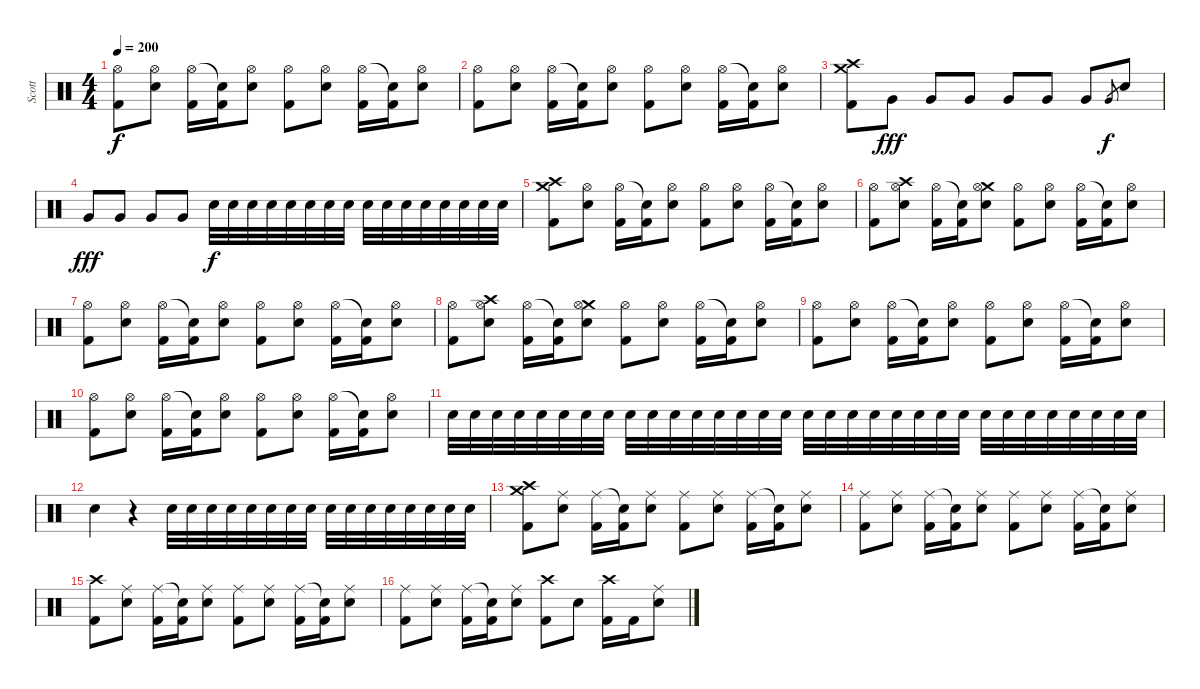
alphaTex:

\track ("Scott" "Scott") {instrument percussion}
\staff {score}
\articulation defaults
\ts (4 4)
\tempo 200
\clef neutral
\ks c
("Hi-Hat (open)" "Kick (hit) 2").8{dy f} ("Hi-Hat (open)" "Snare (hit) 2").8 ("Hi-Hat (open)" "Kick (hit) 2").16 ("Snare (hit)"{t} "Kick (hit) 2").16 ("Hi-Hat (open)" "Snare (hit) 2").8 ("Hi-Hat (open)" "Kick (hit) 2").8 ("Hi-Hat (open)" "Snare (hit) 2").8 ("Hi-Hat (open)" "Kick (hit) 2").16 ("Snare (hit)"{t} "Kick (hit) 2").16 ("Hi-Hat (open)" "Snare (hit) 2").8 |
("Hi-Hat (open)" "Kick (hit) 2").8 ("Hi-Hat (open)" "Snare (hit) 2").8 ("Hi-Hat (open)" "Kick (hit) 2").16 ("Snare (hit)"{t} "Kick (hit) 2").16 ("Hi-Hat (open)" "Snare (hit) 2").8 ("Hi-Hat (open)" "Kick (hit) 2").8 ("Hi-Hat (open)" "Snare (hit) 2").8 ("Hi-Hat (open)" "Kick (hit) 2").16 ("Snare (hit)"{t} "Kick (hit) 2").16 ("Hi-Hat (open)" "Snare (hit) 2").8 |
("Crash medium (hit)" "Crash high (hit)" "Kick (hit) 2").8 "Very Low Tom (hit)".8{dy fff} "Very Low Tom (hit)".8 "Very Low Tom (hit)".8 "Very Low Tom (hit)".8 "Very Low Tom (hit)".8 "Very Low Tom (hit)".8 "Very Low Tom (hit)".8{gr dy f} "Snare (hit) 2".8 |
"Very Low Tom (hit)".8{dy fff} "Very Low Tom (hit)".8 "Very Low Tom (hit)".8 "Very Low Tom (hit)".8 "Snare (hit) 2".32{dy f} "Snare (hit) 2".32 "Snare (hit) 2".32 "Snare (hit) 2".32 "Snare (hit) 2".32 "Snare (hit) 2".32 "Snare (hit) 2".32 "Snare (hit) 2".32 "Snare (hit) 2".32 "Snare (hit) 2".32 "Snare (hit) 2".32 "Snare (hit) 2".32 "Snare (hit) 2".32 "Snare (hit) 2".32 "Snare (hit) 2".32 "Snare (hit) 2".32 |
("Crash medium (hit)" "Crash high (hit)" "Kick (hit) 2").8 ("Hi-Hat (open)" "Snare (hit) 2").8 ("Hi-Hat (open)" "Kick (hit) 2").16 ("Snare (hit)"{t} "Kick (hit) 2").16 ("Hi-Hat (open)" "Snare (hit) 2").8 ("Hi-Hat (open)" "Kick (hit) 2").8 ("Hi-Hat (open)" "Snare (hit) 2").8 ("Hi-Hat (open)" "Kick (hit) 2").16 ("Snare (hit)"{t} "Kick (hit) 2").16 ("Hi-Hat (open)" "Snare (hit) 2").8 |
("Hi-Hat (open)" "Kick (hit) 2").8 ("Crash high (hit)" "Hi-Hat (open)" "Snare (hit) 2").8 ("Hi-Hat (open)" "Kick (hit) 2").16 ("Snare (hit)"{t} "Kick (hit) 2").16 ("Crash medium (hit)" "Hi-Hat (open)" "Snare (hit) 2").8 ("Hi-Hat (open)" "Kick (hit) 2").8 ("Hi-Hat (open)" "Snare (hit) 2").8 ("Hi-Hat (open)" "Kick (hit) 2").16 ("Snare (hit)"{t} "Kick (hit) 2").16 ("Hi-Hat (open)" "Snare (hit) 2").8 |
("Hi-Hat (open)" "Kick (hit) 2").8 ("Hi-Hat (open)" "Snare (hit) 2").8 ("Hi-Hat (open)" "Kick (hit) 2").16 ("Snare (hit)"{t} "Kick (hit) 2").16 ("Hi-Hat (open)" "Snare (hit) 2").8 ("Hi-Hat (open)" "Kick (hit) 2").8 ("Hi-Hat (open)" "Snare (hit) 2").8 ("Hi-Hat (open)" "Kick (hit) 2").16 ("Snare (hit)"{t} "Kick (hit) 2").16 ("Hi-Hat (open)" "Snare (hit) 2").8 |
("Hi-Hat (open)" "Kick (hit) 2").8 ("Crash high (hit)" "Hi-Hat (open)" "Snare (hit) 2").8 ("Hi-Hat (open)" "Kick (hit) 2").16 ("Snare (hit)"{t} "Kick (hit) 2").16 ("Crash medium (hit)" "Hi-Hat (open)" "Snare (hit) 2").8 ("Hi-Hat (open)" "Kick (hit) 2").8 ("Hi-Hat (open)" "Snare (hit) 2").8 ("Hi-Hat (open)" "Kick (hit) 2").16 ("Snare (hit)"{t} "Kick (hit) 2").16 ("Hi-Hat (open)" "Snare (hit) 2").8 |
("Hi-Hat (open)" "Kick (hit) 2").8 ("Hi-Hat (open)" "Snare (hit) 2").8 ("Hi-Hat (open)" "Kick (hit) 2").16 ("Snare (hit)"{t} "Kick (hit) 2").16 ("Hi-Hat (open)" "Snare (hit) 2").8 ("Hi-Hat (open)" "Kick (hit) 2").8 ("Hi-Hat (open)" "Snare (hit) 2").8 ("Hi-Hat (open)" "Kick (hit) 2").16 ("Snare (hit)"{t} "Kick (hit) 2").16 ("Hi-Hat (open)" "Snare (hit) 2").8 |
("Hi-Hat (open)" "Kick (hit) 2").8 ("Hi-Hat (open)" "Snare (hit) 2").8 ("Hi-Hat (open)" "Kick (hit) 2").16 ("Snare (hit)"{t} "Kick (hit) 2").16 ("Hi-Hat (open)" "Snare (hit) 2").8 ("Hi-Hat (open)" "Kick (hit) 2").8 ("Hi-Hat (open)" "Snare (hit) 2").8 ("Hi-Hat (open)" "Kick (hit) 2").16 ("Snare (hit)"{t} "Kick (hit) 2").16 ("Hi-Hat (open)" "Snare (hit) 2").8 |
"Snare (hit) 2".32 "Snare (hit) 2".32 "Snare (hit) 2".32 "Snare (hit) 2".32 "Snare (hit) 2".32 "Snare (hit) 2".32 "Snare (hit) 2".32 "Snare (hit) 2".32 "Snare (hit) 2".32 "Snare (hit) 2".32 "Snare (hit) 2".32 "Snare (hit) 2".32 "Snare (hit) 2".32 "Snare (hit) 2".32 "Snare (hit) 2".32 "Snare (hit) 2".32 "Snare (hit) 2".32 "Snare (hit) 2".32 "Snare (hit) 2".32 "Snare (hit) 2".32 "Snare (hit) 2".32 "Snare (hit) 2".32 "Snare (hit) 2".32 "Snare (hit) 2".32 "Snare (hit) 2".32 "Snare (hit) 2".32 "Snare (hit) 2".32 "Snare (hit) 2".32 "Snare (hit) 2".32 "Snare (hit) 2".32 "Snare (hit) 2".32 "Snare (hit) 2".32 |
"Snare (hit) 2".4 r.4 "Snare (hit) 2".32 "Snare (hit) 2".32 "Snare (hit) 2".32 "Snare (hit) 2".32 "Snare (hit) 2".32 "Snare (hit) 2".32 "Snare (hit) 2".32 "Snare (hit) 2".32 "Snare (hit) 2".32 "Snare (hit) 2".32 "Snare (hit) 2".32 "Snare (hit) 2".32 "Snare (hit) 2".32 "Snare (hit) 2".32 "Snare (hit) 2".32 "Snare (hit) 2".32 |
("Crash medium (hit)" "Crash high (hit)" "Kick (hit) 2").8 ("Ride (middle)" "Snare (hit) 2").8 ("Ride (middle)" "Kick (hit) 2").16 ("Snare (hit)"{t} "Kick (hit) 2").16 ("Ride (middle)" "Snare (hit) 2").8 ("Ride (middle)" "Kick (hit) 2").8 ("Ride (middle)" "Snare (hit) 2").8 ("Ride (middle)" "Kick (hit) 2").16 ("Snare (hit)"{t} "Kick (hit) 2").16 ("Ride (middle)" "Snare (hit) 2").8 |
("Ride (middle)" "Kick (hit) 2").8 ("Ride (middle)" "Snare (hit) 2").8 ("Ride (middle)" "Kick (hit) 2").16 ("Snare (hit)"{t} "Kick (hit) 2").16 ("Ride (middle)" "Snare (hit) 2").8 ("Ride (middle)" "Kick (hit) 2").8 ("Ride (middle)" "Snare (hit) 2").8 ("Ride (middle)" "Kick (hit) 2").16 ("Snare (hit)"{t} "Kick (hit) 2").16 ("Ride (middle)" "Snare (hit) 2").8 |
("Crash high (hit)" "Kick (hit) 2").8 ("Ride (middle)" "Snare (hit) 2").8 ("Ride (middle)" "Kick (hit) 2").16 ("Snare (hit)"{t} "Kick (hit) 2").16 ("Ride (middle)" "Snare (hit) 2").8 ("Ride (middle)" "Kick (hit) 2").8 ("Ride (middle)" "Snare (hit) 2").8 ("Ride (middle)" "Kick (hit) 2").16 ("Snare (hit)"{t} "Kick (hit) 2").16 ("Ride (middle)" "Snare (hit) 2").8 |
("Ride (middle)" "Kick (hit) 2").8 ("Ride (middle)" "Snare (hit) 2").8 ("Ride (middle)" "Kick (hit) 2").16 ("Snare (hit)"{t} "Kick (hit) 2").16 ("Ride (middle)" "Snare (hit) 2").8 ("Crash high (hit)" "Kick (hit) 2").8 "Snare (hit) 2".8 ("Crash high (hit)" "Kick (hit) 2").16 "Kick (hit) 2".16 ("Ride (middle)" "Snare (hit) 2").8
